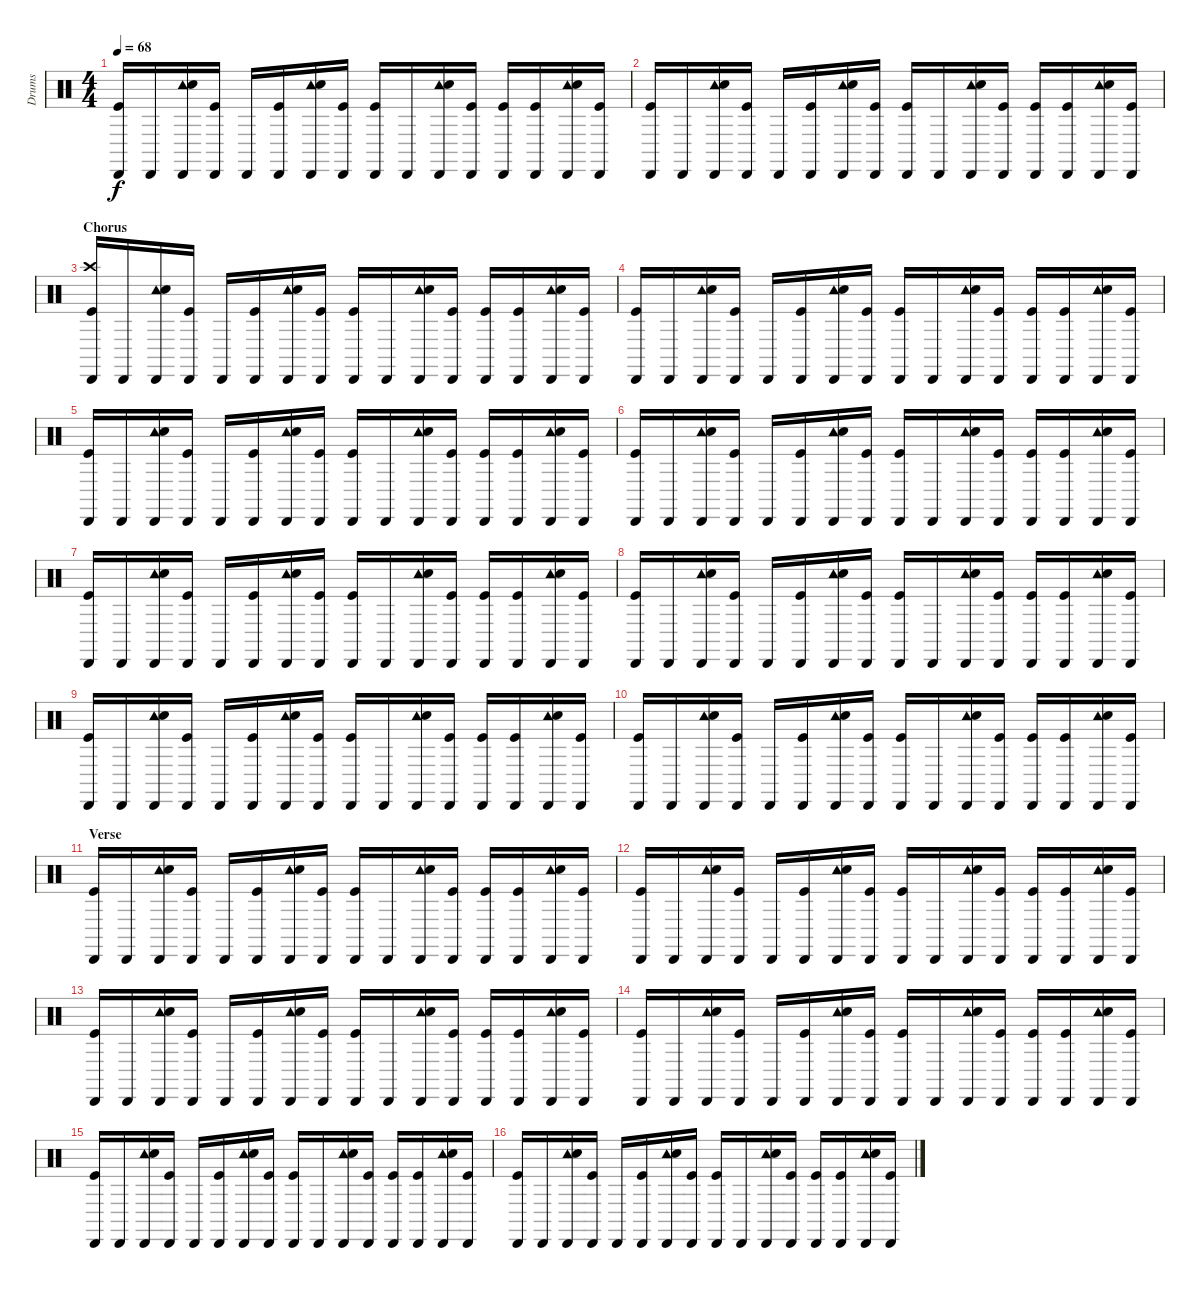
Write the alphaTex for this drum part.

\track ("Drums" "Drums") {instrument percussion}
\staff {score}
\articulation defaults
\ts (4 4)
\tempo 68
\clef neutral
\ks c
("Cabasa (hit)" "Kick (hit)").16{dy f} "Cabasa (hit)".16 ("Cabasa (hit)" "Tambourine (hit)" "Electric Snare (hit)").16 ("Cabasa (hit)" "Kick (hit)").16 "Cabasa (hit)".16 ("Cabasa (hit)" "Kick (hit)").16 ("Cabasa (hit)" "Tambourine (hit)" "Electric Snare (hit)").16 ("Cabasa (hit)" "Kick (hit)").16 ("Cabasa (hit)" "Kick (hit)").16 "Cabasa (hit)".16 ("Cabasa (hit)" "Tambourine (hit)" "Electric Snare (hit)").16 ("Cabasa (hit)" "Kick (hit)").16 ("Cabasa (hit)" "Kick (hit)").16 ("Cabasa (hit)" "Kick (hit)").16 ("Cabasa (hit)" "Tambourine (hit)" "Electric Snare (hit)").16 ("Cabasa (hit)" "Kick (hit)").16 |
("Cabasa (hit)" "Kick (hit)").16 "Cabasa (hit)".16 ("Cabasa (hit)" "Tambourine (hit)" "Electric Snare (hit)").16 ("Cabasa (hit)" "Kick (hit)").16 "Cabasa (hit)".16 ("Cabasa (hit)" "Kick (hit)").16 ("Cabasa (hit)" "Tambourine (hit)" "Electric Snare (hit)").16 ("Cabasa (hit)" "Kick (hit)").16 ("Cabasa (hit)" "Kick (hit)").16 "Cabasa (hit)".16 ("Cabasa (hit)" "Tambourine (hit)" "Electric Snare (hit)").16 ("Cabasa (hit)" "Kick (hit)").16 ("Cabasa (hit)" "Kick (hit)").16 ("Cabasa (hit)" "Kick (hit)").16 ("Cabasa (hit)" "Tambourine (hit)" "Electric Snare (hit)").16 ("Cabasa (hit)" "Kick (hit)").16 |
\section ("" "Chorus")
("Cabasa (hit)" "Crash high (hit)" "Kick (hit)").16 "Cabasa (hit)".16 ("Cabasa (hit)" "Tambourine (hit)" "Electric Snare (hit)").16 ("Cabasa (hit)" "Kick (hit)").16 "Cabasa (hit)".16 ("Cabasa (hit)" "Kick (hit)").16 ("Cabasa (hit)" "Tambourine (hit)" "Electric Snare (hit)").16 ("Cabasa (hit)" "Kick (hit)").16 ("Cabasa (hit)" "Kick (hit)").16 "Cabasa (hit)".16 ("Cabasa (hit)" "Tambourine (hit)" "Electric Snare (hit)").16 ("Cabasa (hit)" "Kick (hit)").16 ("Cabasa (hit)" "Kick (hit)").16 ("Cabasa (hit)" "Kick (hit)").16 ("Cabasa (hit)" "Tambourine (hit)" "Electric Snare (hit)").16 ("Cabasa (hit)" "Kick (hit)").16 |
("Cabasa (hit)" "Kick (hit)").16 "Cabasa (hit)".16 ("Cabasa (hit)" "Tambourine (hit)" "Electric Snare (hit)").16 ("Cabasa (hit)" "Kick (hit)").16 "Cabasa (hit)".16 ("Cabasa (hit)" "Kick (hit)").16 ("Cabasa (hit)" "Tambourine (hit)" "Electric Snare (hit)").16 ("Cabasa (hit)" "Kick (hit)").16 ("Cabasa (hit)" "Kick (hit)").16 "Cabasa (hit)".16 ("Cabasa (hit)" "Tambourine (hit)" "Electric Snare (hit)").16 ("Cabasa (hit)" "Kick (hit)").16 ("Cabasa (hit)" "Kick (hit)").16 ("Cabasa (hit)" "Kick (hit)").16 ("Cabasa (hit)" "Tambourine (hit)" "Electric Snare (hit)").16 ("Cabasa (hit)" "Kick (hit)").16 |
("Cabasa (hit)" "Kick (hit)").16 "Cabasa (hit)".16 ("Cabasa (hit)" "Tambourine (hit)" "Electric Snare (hit)").16 ("Cabasa (hit)" "Kick (hit)").16 "Cabasa (hit)".16 ("Cabasa (hit)" "Kick (hit)").16 ("Cabasa (hit)" "Tambourine (hit)" "Electric Snare (hit)").16 ("Cabasa (hit)" "Kick (hit)").16 ("Cabasa (hit)" "Kick (hit)").16 "Cabasa (hit)".16 ("Cabasa (hit)" "Tambourine (hit)" "Electric Snare (hit)").16 ("Cabasa (hit)" "Kick (hit)").16 ("Cabasa (hit)" "Kick (hit)").16 ("Cabasa (hit)" "Kick (hit)").16 ("Cabasa (hit)" "Tambourine (hit)" "Electric Snare (hit)").16 ("Cabasa (hit)" "Kick (hit)").16 |
("Cabasa (hit)" "Kick (hit)").16 "Cabasa (hit)".16 ("Cabasa (hit)" "Tambourine (hit)" "Electric Snare (hit)").16 ("Cabasa (hit)" "Kick (hit)").16 "Cabasa (hit)".16 ("Cabasa (hit)" "Kick (hit)").16 ("Cabasa (hit)" "Tambourine (hit)" "Electric Snare (hit)").16 ("Cabasa (hit)" "Kick (hit)").16 ("Cabasa (hit)" "Kick (hit)").16 "Cabasa (hit)".16 ("Cabasa (hit)" "Tambourine (hit)" "Electric Snare (hit)").16 ("Cabasa (hit)" "Kick (hit)").16 ("Cabasa (hit)" "Kick (hit)").16 ("Cabasa (hit)" "Kick (hit)").16 ("Cabasa (hit)" "Tambourine (hit)" "Electric Snare (hit)").16 ("Cabasa (hit)" "Kick (hit)").16 |
("Cabasa (hit)" "Kick (hit)").16 "Cabasa (hit)".16 ("Cabasa (hit)" "Tambourine (hit)" "Electric Snare (hit)").16 ("Cabasa (hit)" "Kick (hit)").16 "Cabasa (hit)".16 ("Cabasa (hit)" "Kick (hit)").16 ("Cabasa (hit)" "Tambourine (hit)" "Electric Snare (hit)").16 ("Cabasa (hit)" "Kick (hit)").16 ("Cabasa (hit)" "Kick (hit)").16 "Cabasa (hit)".16 ("Cabasa (hit)" "Tambourine (hit)" "Electric Snare (hit)").16 ("Cabasa (hit)" "Kick (hit)").16 ("Cabasa (hit)" "Kick (hit)").16 ("Cabasa (hit)" "Kick (hit)").16 ("Cabasa (hit)" "Tambourine (hit)" "Electric Snare (hit)").16 ("Cabasa (hit)" "Kick (hit)").16 |
("Cabasa (hit)" "Kick (hit)").16 "Cabasa (hit)".16 ("Cabasa (hit)" "Tambourine (hit)" "Electric Snare (hit)").16 ("Cabasa (hit)" "Kick (hit)").16 "Cabasa (hit)".16 ("Cabasa (hit)" "Kick (hit)").16 ("Cabasa (hit)" "Tambourine (hit)" "Electric Snare (hit)").16 ("Cabasa (hit)" "Kick (hit)").16 ("Cabasa (hit)" "Kick (hit)").16 "Cabasa (hit)".16 ("Cabasa (hit)" "Tambourine (hit)" "Electric Snare (hit)").16 ("Cabasa (hit)" "Kick (hit)").16 ("Cabasa (hit)" "Kick (hit)").16 ("Cabasa (hit)" "Kick (hit)").16 ("Cabasa (hit)" "Tambourine (hit)" "Electric Snare (hit)").16 ("Cabasa (hit)" "Kick (hit)").16 |
("Cabasa (hit)" "Kick (hit)").16 "Cabasa (hit)".16 ("Cabasa (hit)" "Tambourine (hit)" "Electric Snare (hit)").16 ("Cabasa (hit)" "Kick (hit)").16 "Cabasa (hit)".16 ("Cabasa (hit)" "Kick (hit)").16 ("Cabasa (hit)" "Tambourine (hit)" "Electric Snare (hit)").16 ("Cabasa (hit)" "Kick (hit)").16 ("Cabasa (hit)" "Kick (hit)").16 "Cabasa (hit)".16 ("Cabasa (hit)" "Tambourine (hit)" "Electric Snare (hit)").16 ("Cabasa (hit)" "Kick (hit)").16 ("Cabasa (hit)" "Kick (hit)").16 ("Cabasa (hit)" "Kick (hit)").16 ("Cabasa (hit)" "Tambourine (hit)" "Electric Snare (hit)").16 ("Cabasa (hit)" "Kick (hit)").16 |
("Cabasa (hit)" "Kick (hit)").16 "Cabasa (hit)".16 ("Cabasa (hit)" "Tambourine (hit)" "Electric Snare (hit)").16 ("Cabasa (hit)" "Kick (hit)").16 "Cabasa (hit)".16 ("Cabasa (hit)" "Kick (hit)").16 ("Cabasa (hit)" "Tambourine (hit)" "Electric Snare (hit)").16 ("Cabasa (hit)" "Kick (hit)").16 ("Cabasa (hit)" "Kick (hit)").16 "Cabasa (hit)".16 ("Cabasa (hit)" "Tambourine (hit)" "Electric Snare (hit)").16 ("Cabasa (hit)" "Kick (hit)").16 ("Cabasa (hit)" "Kick (hit)").16 ("Cabasa (hit)" "Kick (hit)").16 ("Cabasa (hit)" "Tambourine (hit)" "Electric Snare (hit)").16 ("Cabasa (hit)" "Kick (hit)").16 |
\section ("" "Verse")
("Cabasa (hit)" "Kick (hit)").16 "Cabasa (hit)".16 ("Cabasa (hit)" "Tambourine (hit)" "Electric Snare (hit)").16 ("Cabasa (hit)" "Kick (hit)").16 "Cabasa (hit)".16 ("Cabasa (hit)" "Kick (hit)").16 ("Cabasa (hit)" "Tambourine (hit)" "Electric Snare (hit)").16 ("Cabasa (hit)" "Kick (hit)").16 ("Cabasa (hit)" "Kick (hit)").16 "Cabasa (hit)".16 ("Cabasa (hit)" "Tambourine (hit)" "Electric Snare (hit)").16 ("Cabasa (hit)" "Kick (hit)").16 ("Cabasa (hit)" "Kick (hit)").16 ("Cabasa (hit)" "Kick (hit)").16 ("Cabasa (hit)" "Tambourine (hit)" "Electric Snare (hit)").16 ("Cabasa (hit)" "Kick (hit)").16 |
("Cabasa (hit)" "Kick (hit)").16 "Cabasa (hit)".16 ("Cabasa (hit)" "Tambourine (hit)" "Electric Snare (hit)").16 ("Cabasa (hit)" "Kick (hit)").16 "Cabasa (hit)".16 ("Cabasa (hit)" "Kick (hit)").16 ("Cabasa (hit)" "Tambourine (hit)" "Electric Snare (hit)").16 ("Cabasa (hit)" "Kick (hit)").16 ("Cabasa (hit)" "Kick (hit)").16 "Cabasa (hit)".16 ("Cabasa (hit)" "Tambourine (hit)" "Electric Snare (hit)").16 ("Cabasa (hit)" "Kick (hit)").16 ("Cabasa (hit)" "Kick (hit)").16 ("Cabasa (hit)" "Kick (hit)").16 ("Cabasa (hit)" "Tambourine (hit)" "Electric Snare (hit)").16 ("Cabasa (hit)" "Kick (hit)").16 |
("Cabasa (hit)" "Kick (hit)").16 "Cabasa (hit)".16 ("Cabasa (hit)" "Tambourine (hit)" "Electric Snare (hit)").16 ("Cabasa (hit)" "Kick (hit)").16 "Cabasa (hit)".16 ("Cabasa (hit)" "Kick (hit)").16 ("Cabasa (hit)" "Tambourine (hit)" "Electric Snare (hit)").16 ("Cabasa (hit)" "Kick (hit)").16 ("Cabasa (hit)" "Kick (hit)").16 "Cabasa (hit)".16 ("Cabasa (hit)" "Tambourine (hit)" "Electric Snare (hit)").16 ("Cabasa (hit)" "Kick (hit)").16 ("Cabasa (hit)" "Kick (hit)").16 ("Cabasa (hit)" "Kick (hit)").16 ("Cabasa (hit)" "Tambourine (hit)" "Electric Snare (hit)").16 ("Cabasa (hit)" "Kick (hit)").16 |
("Cabasa (hit)" "Kick (hit)").16 "Cabasa (hit)".16 ("Cabasa (hit)" "Tambourine (hit)" "Electric Snare (hit)").16 ("Cabasa (hit)" "Kick (hit)").16 "Cabasa (hit)".16 ("Cabasa (hit)" "Kick (hit)").16 ("Cabasa (hit)" "Tambourine (hit)" "Electric Snare (hit)").16 ("Cabasa (hit)" "Kick (hit)").16 ("Cabasa (hit)" "Kick (hit)").16 "Cabasa (hit)".16 ("Cabasa (hit)" "Tambourine (hit)" "Electric Snare (hit)").16 ("Cabasa (hit)" "Kick (hit)").16 ("Cabasa (hit)" "Kick (hit)").16 ("Cabasa (hit)" "Kick (hit)").16 ("Cabasa (hit)" "Tambourine (hit)" "Electric Snare (hit)").16 ("Cabasa (hit)" "Kick (hit)").16 |
("Cabasa (hit)" "Kick (hit)").16 "Cabasa (hit)".16 ("Cabasa (hit)" "Tambourine (hit)" "Electric Snare (hit)").16 ("Cabasa (hit)" "Kick (hit)").16 "Cabasa (hit)".16 ("Cabasa (hit)" "Kick (hit)").16 ("Cabasa (hit)" "Tambourine (hit)" "Electric Snare (hit)").16 ("Cabasa (hit)" "Kick (hit)").16 ("Cabasa (hit)" "Kick (hit)").16 "Cabasa (hit)".16 ("Cabasa (hit)" "Tambourine (hit)" "Electric Snare (hit)").16 ("Cabasa (hit)" "Kick (hit)").16 ("Cabasa (hit)" "Kick (hit)").16 ("Cabasa (hit)" "Kick (hit)").16 ("Cabasa (hit)" "Tambourine (hit)" "Electric Snare (hit)").16 ("Cabasa (hit)" "Kick (hit)").16 |
("Cabasa (hit)" "Kick (hit)").16 "Cabasa (hit)".16 ("Cabasa (hit)" "Tambourine (hit)" "Electric Snare (hit)").16 ("Cabasa (hit)" "Kick (hit)").16 "Cabasa (hit)".16 ("Cabasa (hit)" "Kick (hit)").16 ("Cabasa (hit)" "Tambourine (hit)" "Electric Snare (hit)").16 ("Cabasa (hit)" "Kick (hit)").16 ("Cabasa (hit)" "Kick (hit)").16 "Cabasa (hit)".16 ("Cabasa (hit)" "Tambourine (hit)" "Electric Snare (hit)").16 ("Cabasa (hit)" "Kick (hit)").16 ("Cabasa (hit)" "Kick (hit)").16 ("Cabasa (hit)" "Kick (hit)").16 ("Cabasa (hit)" "Tambourine (hit)" "Electric Snare (hit)").16 ("Cabasa (hit)" "Kick (hit)").16
